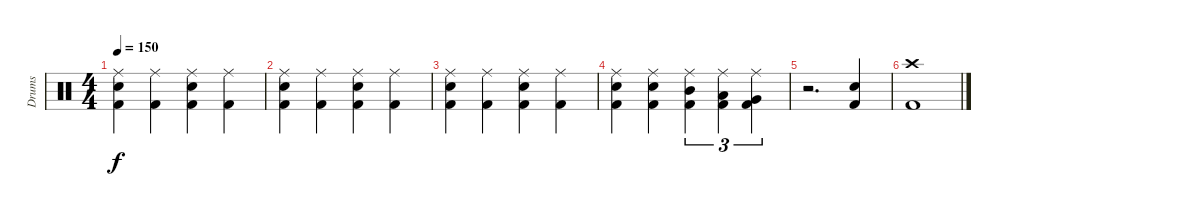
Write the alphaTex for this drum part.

\track ("Drums" "Drums") {instrument percussion}
\staff {score}
\articulation defaults
\ts (4 4)
\tempo 150
\clef neutral
\ks c
("Ride (middle)" "Electric Snare (hit)" "Kick (hit) 2").4{dy f} ("Ride (middle)" "Kick (hit) 2").4 ("Ride (middle)" "Electric Snare (hit)" "Kick (hit) 2").4 ("Ride (middle)" "Kick (hit) 2").4 |
("Ride (middle)" "Electric Snare (hit)" "Kick (hit) 2").4 ("Ride (middle)" "Kick (hit) 2").4 ("Ride (middle)" "Electric Snare (hit)" "Kick (hit) 2").4 ("Ride (middle)" "Kick (hit) 2").4 |
("Ride (middle)" "Electric Snare (hit)" "Kick (hit) 2").4 ("Ride (middle)" "Kick (hit) 2").4 ("Ride (middle)" "Electric Snare (hit)" "Kick (hit) 2").4 ("Ride (middle)" "Kick (hit) 2").4 |
("Ride (middle)" "Electric Snare (hit)" "Kick (hit) 2").4 ("Ride (middle)" "Snare (hit) 2" "Kick (hit) 2").4 ("Ride (middle)" "Mid Tom (hit)" "Kick (hit) 2").4{tu (3 2)} ("Ride (middle)" "Low Tom (hit)" "Kick (hit) 2").4{tu (3 2)} ("Ride (middle)" "Very Low Tom (hit)" "Kick (hit) 2").4{tu (3 2)} |
r.2{d} ("Electric Snare (hit)" "Kick (hit) 2").4 |
("Crash high (hit)" "Kick (hit) 2").1
